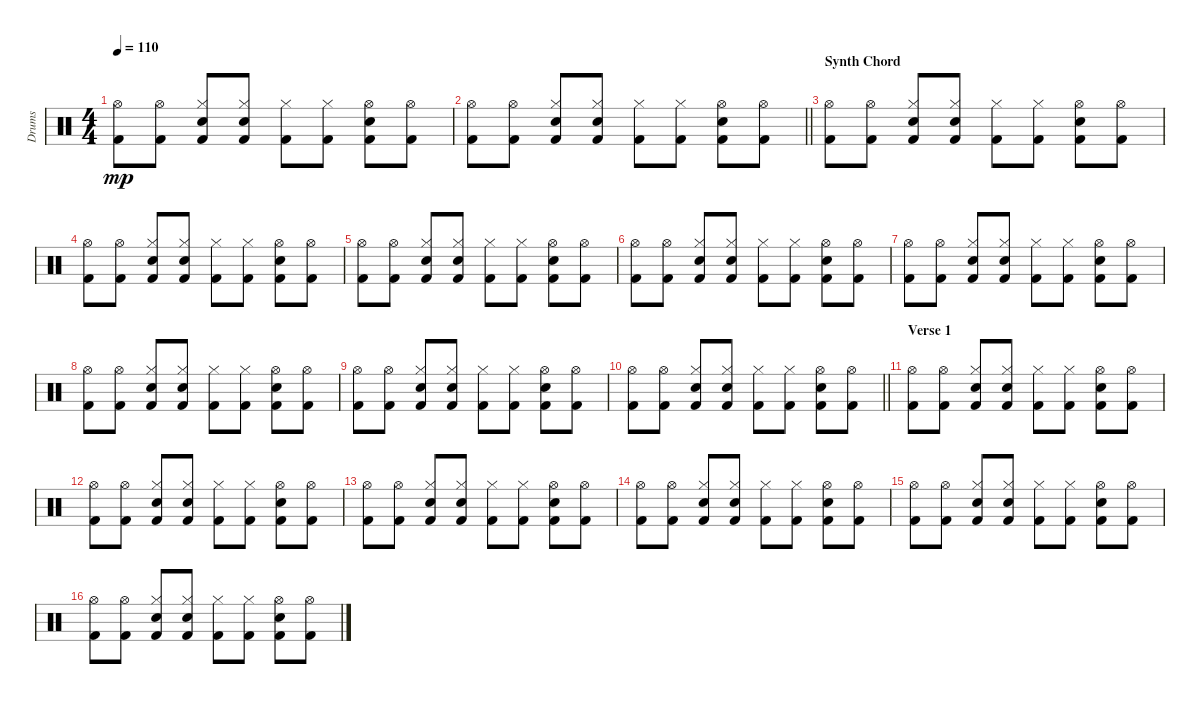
\track ("Drums" "Drums") {instrument percussion}
\staff {score}
\articulation defaults
\ts (4 4)
\tempo 110
\clef neutral
\ks c
("Hi-Hat (open)" "Kick (hit) 2").8{dy mp} ("Hi-Hat (open)" "Kick (hit) 2").8 ("Hi-Hat (closed)" "Electric Snare (hit)" "Kick (hit) 2").8 ("Hi-Hat (closed)" "Electric Snare (hit)" "Kick (hit) 2").8 ("Hi-Hat (closed)" "Kick (hit) 2").8 ("Hi-Hat (closed)" "Kick (hit) 2").8 ("Hi-Hat (open)" "Electric Snare (hit)" "Kick (hit) 2").8 ("Hi-Hat (open)" "Kick (hit) 2").8 |
\barLineRight lightlight
("Hi-Hat (open)" "Kick (hit) 2").8 ("Hi-Hat (open)" "Kick (hit) 2").8 ("Hi-Hat (closed)" "Electric Snare (hit)" "Kick (hit) 2").8 ("Hi-Hat (closed)" "Electric Snare (hit)" "Kick (hit) 2").8 ("Hi-Hat (closed)" "Kick (hit) 2").8 ("Hi-Hat (closed)" "Kick (hit) 2").8 ("Hi-Hat (open)" "Electric Snare (hit)" "Kick (hit) 2").8 ("Hi-Hat (open)" "Kick (hit) 2").8 |
\section ("" "Synth Chord")
("Hi-Hat (open)" "Kick (hit) 2").8 ("Hi-Hat (open)" "Kick (hit) 2").8 ("Hi-Hat (closed)" "Electric Snare (hit)" "Kick (hit) 2").8 ("Hi-Hat (closed)" "Electric Snare (hit)" "Kick (hit) 2").8 ("Hi-Hat (closed)" "Kick (hit) 2").8 ("Hi-Hat (closed)" "Kick (hit) 2").8 ("Hi-Hat (open)" "Electric Snare (hit)" "Kick (hit) 2").8 ("Hi-Hat (open)" "Kick (hit) 2").8 |
("Hi-Hat (open)" "Kick (hit) 2").8 ("Hi-Hat (open)" "Kick (hit) 2").8 ("Hi-Hat (closed)" "Electric Snare (hit)" "Kick (hit) 2").8 ("Hi-Hat (closed)" "Electric Snare (hit)" "Kick (hit) 2").8 ("Hi-Hat (closed)" "Kick (hit) 2").8 ("Hi-Hat (closed)" "Kick (hit) 2").8 ("Hi-Hat (open)" "Electric Snare (hit)" "Kick (hit) 2").8 ("Hi-Hat (open)" "Kick (hit) 2").8 |
("Hi-Hat (open)" "Kick (hit) 2").8 ("Hi-Hat (open)" "Kick (hit) 2").8 ("Hi-Hat (closed)" "Electric Snare (hit)" "Kick (hit) 2").8 ("Hi-Hat (closed)" "Electric Snare (hit)" "Kick (hit) 2").8 ("Hi-Hat (closed)" "Kick (hit) 2").8 ("Hi-Hat (closed)" "Kick (hit) 2").8 ("Hi-Hat (open)" "Electric Snare (hit)" "Kick (hit) 2").8 ("Hi-Hat (open)" "Kick (hit) 2").8 |
("Hi-Hat (open)" "Kick (hit) 2").8 ("Hi-Hat (open)" "Kick (hit) 2").8 ("Hi-Hat (closed)" "Electric Snare (hit)" "Kick (hit) 2").8 ("Hi-Hat (closed)" "Electric Snare (hit)" "Kick (hit) 2").8 ("Hi-Hat (closed)" "Kick (hit) 2").8 ("Hi-Hat (closed)" "Kick (hit) 2").8 ("Hi-Hat (open)" "Electric Snare (hit)" "Kick (hit) 2").8 ("Hi-Hat (open)" "Kick (hit) 2").8 |
("Hi-Hat (open)" "Kick (hit) 2").8 ("Hi-Hat (open)" "Kick (hit) 2").8 ("Hi-Hat (closed)" "Electric Snare (hit)" "Kick (hit) 2").8 ("Hi-Hat (closed)" "Electric Snare (hit)" "Kick (hit) 2").8 ("Hi-Hat (closed)" "Kick (hit) 2").8 ("Hi-Hat (closed)" "Kick (hit) 2").8 ("Hi-Hat (open)" "Electric Snare (hit)" "Kick (hit) 2").8 ("Hi-Hat (open)" "Kick (hit) 2").8 |
("Hi-Hat (open)" "Kick (hit) 2").8 ("Hi-Hat (open)" "Kick (hit) 2").8 ("Hi-Hat (closed)" "Electric Snare (hit)" "Kick (hit) 2").8 ("Hi-Hat (closed)" "Electric Snare (hit)" "Kick (hit) 2").8 ("Hi-Hat (closed)" "Kick (hit) 2").8 ("Hi-Hat (closed)" "Kick (hit) 2").8 ("Hi-Hat (open)" "Electric Snare (hit)" "Kick (hit) 2").8 ("Hi-Hat (open)" "Kick (hit) 2").8 |
("Hi-Hat (open)" "Kick (hit) 2").8 ("Hi-Hat (open)" "Kick (hit) 2").8 ("Hi-Hat (closed)" "Electric Snare (hit)" "Kick (hit) 2").8 ("Hi-Hat (closed)" "Electric Snare (hit)" "Kick (hit) 2").8 ("Hi-Hat (closed)" "Kick (hit) 2").8 ("Hi-Hat (closed)" "Kick (hit) 2").8 ("Hi-Hat (open)" "Electric Snare (hit)" "Kick (hit) 2").8 ("Hi-Hat (open)" "Kick (hit) 2").8 |
\barLineRight lightlight
("Hi-Hat (open)" "Kick (hit) 2").8 ("Hi-Hat (open)" "Kick (hit) 2").8 ("Hi-Hat (closed)" "Electric Snare (hit)" "Kick (hit) 2").8 ("Hi-Hat (closed)" "Electric Snare (hit)" "Kick (hit) 2").8 ("Hi-Hat (closed)" "Kick (hit) 2").8 ("Hi-Hat (closed)" "Kick (hit) 2").8 ("Hi-Hat (open)" "Electric Snare (hit)" "Kick (hit) 2").8 ("Hi-Hat (open)" "Kick (hit) 2").8 |
\section ("" "Verse 1")
("Hi-Hat (open)" "Kick (hit) 2").8 ("Hi-Hat (open)" "Kick (hit) 2").8 ("Hi-Hat (closed)" "Electric Snare (hit)" "Kick (hit) 2").8 ("Hi-Hat (closed)" "Electric Snare (hit)" "Kick (hit) 2").8 ("Hi-Hat (closed)" "Kick (hit) 2").8 ("Hi-Hat (closed)" "Kick (hit) 2").8 ("Hi-Hat (open)" "Electric Snare (hit)" "Kick (hit) 2").8 ("Hi-Hat (open)" "Kick (hit) 2").8 |
("Hi-Hat (open)" "Kick (hit) 2").8 ("Hi-Hat (open)" "Kick (hit) 2").8 ("Hi-Hat (closed)" "Electric Snare (hit)" "Kick (hit) 2").8 ("Hi-Hat (closed)" "Electric Snare (hit)" "Kick (hit) 2").8 ("Hi-Hat (closed)" "Kick (hit) 2").8 ("Hi-Hat (closed)" "Kick (hit) 2").8 ("Hi-Hat (open)" "Electric Snare (hit)" "Kick (hit) 2").8 ("Hi-Hat (open)" "Kick (hit) 2").8 |
("Hi-Hat (open)" "Kick (hit) 2").8 ("Hi-Hat (open)" "Kick (hit) 2").8 ("Hi-Hat (closed)" "Electric Snare (hit)" "Kick (hit) 2").8 ("Hi-Hat (closed)" "Electric Snare (hit)" "Kick (hit) 2").8 ("Hi-Hat (closed)" "Kick (hit) 2").8 ("Hi-Hat (closed)" "Kick (hit) 2").8 ("Hi-Hat (open)" "Electric Snare (hit)" "Kick (hit) 2").8 ("Hi-Hat (open)" "Kick (hit) 2").8 |
("Hi-Hat (open)" "Kick (hit) 2").8 ("Hi-Hat (open)" "Kick (hit) 2").8 ("Hi-Hat (closed)" "Electric Snare (hit)" "Kick (hit) 2").8 ("Hi-Hat (closed)" "Electric Snare (hit)" "Kick (hit) 2").8 ("Hi-Hat (closed)" "Kick (hit) 2").8 ("Hi-Hat (closed)" "Kick (hit) 2").8 ("Hi-Hat (open)" "Electric Snare (hit)" "Kick (hit) 2").8 ("Hi-Hat (open)" "Kick (hit) 2").8 |
("Hi-Hat (open)" "Kick (hit) 2").8 ("Hi-Hat (open)" "Kick (hit) 2").8 ("Hi-Hat (closed)" "Electric Snare (hit)" "Kick (hit) 2").8 ("Hi-Hat (closed)" "Electric Snare (hit)" "Kick (hit) 2").8 ("Hi-Hat (closed)" "Kick (hit) 2").8 ("Hi-Hat (closed)" "Kick (hit) 2").8 ("Hi-Hat (open)" "Electric Snare (hit)" "Kick (hit) 2").8 ("Hi-Hat (open)" "Kick (hit) 2").8 |
("Hi-Hat (open)" "Kick (hit) 2").8 ("Hi-Hat (open)" "Kick (hit) 2").8 ("Hi-Hat (closed)" "Electric Snare (hit)" "Kick (hit) 2").8 ("Hi-Hat (closed)" "Electric Snare (hit)" "Kick (hit) 2").8 ("Hi-Hat (closed)" "Kick (hit) 2").8 ("Hi-Hat (closed)" "Kick (hit) 2").8 ("Hi-Hat (open)" "Electric Snare (hit)" "Kick (hit) 2").8 ("Hi-Hat (open)" "Kick (hit) 2").8
